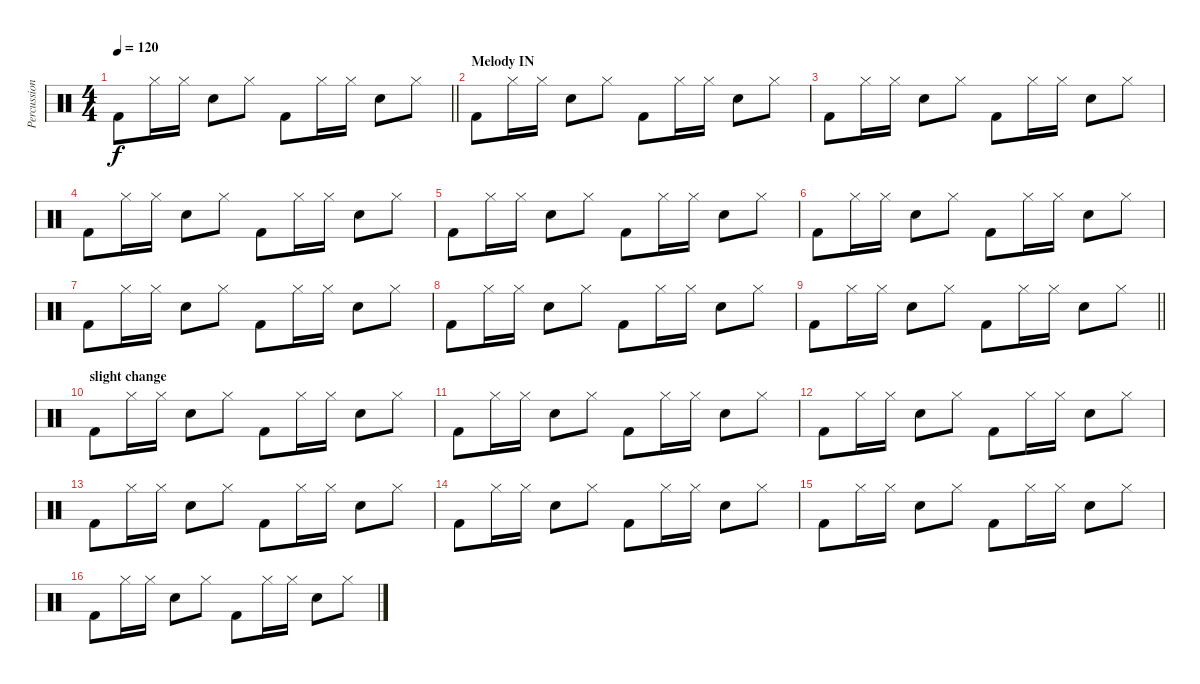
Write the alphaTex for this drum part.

\track ("Percussion" "Percussion") {instrument percussion}
\staff {score}
\articulation defaults
\ts (4 4)
\tempo 120
\clef neutral
\barLineRight lightlight
\ks c "Kick (hit) 2".8{dy f} "Hi-Hat (closed)".16 "Hi-Hat (closed)".16 "Snare (hit) 2".8 "Hi-Hat (closed)".8 "Kick (hit) 2".8 "Hi-Hat (closed)".16 "Hi-Hat (closed)".16 "Snare (hit) 2".8 "Hi-Hat (closed)".8
|
\section ("" "Melody IN")
"Kick (hit) 2".8 "Hi-Hat (closed)".16 "Hi-Hat (closed)".16 "Snare (hit) 2".8 "Hi-Hat (closed)".8 "Kick (hit) 2".8 "Hi-Hat (closed)".16 "Hi-Hat (closed)".16 "Snare (hit) 2".8 "Hi-Hat (closed)".8 |
"Kick (hit) 2".8 "Hi-Hat (closed)".16 "Hi-Hat (closed)".16 "Snare (hit) 2".8 "Hi-Hat (closed)".8 "Kick (hit) 2".8 "Hi-Hat (closed)".16 "Hi-Hat (closed)".16 "Snare (hit) 2".8 "Hi-Hat (closed)".8 |
"Kick (hit) 2".8 "Hi-Hat (closed)".16 "Hi-Hat (closed)".16 "Snare (hit) 2".8 "Hi-Hat (closed)".8 "Kick (hit) 2".8 "Hi-Hat (closed)".16 "Hi-Hat (closed)".16 "Snare (hit) 2".8 "Hi-Hat (closed)".8 |
"Kick (hit) 2".8 "Hi-Hat (closed)".16 "Hi-Hat (closed)".16 "Snare (hit) 2".8 "Hi-Hat (closed)".8 "Kick (hit) 2".8 "Hi-Hat (closed)".16 "Hi-Hat (closed)".16 "Snare (hit) 2".8 "Hi-Hat (closed)".8 |
"Kick (hit) 2".8 "Hi-Hat (closed)".16 "Hi-Hat (closed)".16 "Snare (hit) 2".8 "Hi-Hat (closed)".8 "Kick (hit) 2".8 "Hi-Hat (closed)".16 "Hi-Hat (closed)".16 "Snare (hit) 2".8 "Hi-Hat (closed)".8 |
"Kick (hit) 2".8 "Hi-Hat (closed)".16 "Hi-Hat (closed)".16 "Snare (hit) 2".8 "Hi-Hat (closed)".8 "Kick (hit) 2".8 "Hi-Hat (closed)".16 "Hi-Hat (closed)".16 "Snare (hit) 2".8 "Hi-Hat (closed)".8 |
"Kick (hit) 2".8 "Hi-Hat (closed)".16 "Hi-Hat (closed)".16 "Snare (hit) 2".8 "Hi-Hat (closed)".8 "Kick (hit) 2".8 "Hi-Hat (closed)".16 "Hi-Hat (closed)".16 "Snare (hit) 2".8 "Hi-Hat (closed)".8 |
\barLineRight lightlight "Kick (hit) 2".8 "Hi-Hat (closed)".16 "Hi-Hat (closed)".16 "Snare (hit) 2".8 "Hi-Hat (closed)".8 "Kick (hit) 2".8 "Hi-Hat (closed)".16 "Hi-Hat (closed)".16 "Snare (hit) 2".8 "Hi-Hat (closed)".8
|
\section ("" "slight change")
"Kick (hit) 2".8 "Hi-Hat (closed)".16 "Hi-Hat (closed)".16 "Snare (hit) 2".8 "Hi-Hat (closed)".8 "Kick (hit) 2".8 "Hi-Hat (closed)".16 "Hi-Hat (closed)".16 "Snare (hit) 2".8 "Hi-Hat (closed)".8 |
"Kick (hit) 2".8 "Hi-Hat (closed)".16 "Hi-Hat (closed)".16 "Snare (hit) 2".8 "Hi-Hat (closed)".8 "Kick (hit) 2".8 "Hi-Hat (closed)".16 "Hi-Hat (closed)".16 "Snare (hit) 2".8 "Hi-Hat (closed)".8 |
"Kick (hit) 2".8 "Hi-Hat (closed)".16 "Hi-Hat (closed)".16 "Snare (hit) 2".8 "Hi-Hat (closed)".8 "Kick (hit) 2".8 "Hi-Hat (closed)".16 "Hi-Hat (closed)".16 "Snare (hit) 2".8 "Hi-Hat (closed)".8 |
"Kick (hit) 2".8 "Hi-Hat (closed)".16 "Hi-Hat (closed)".16 "Snare (hit) 2".8 "Hi-Hat (closed)".8 "Kick (hit) 2".8 "Hi-Hat (closed)".16 "Hi-Hat (closed)".16 "Snare (hit) 2".8 "Hi-Hat (closed)".8 |
"Kick (hit) 2".8 "Hi-Hat (closed)".16 "Hi-Hat (closed)".16 "Snare (hit) 2".8 "Hi-Hat (closed)".8 "Kick (hit) 2".8 "Hi-Hat (closed)".16 "Hi-Hat (closed)".16 "Snare (hit) 2".8 "Hi-Hat (closed)".8 |
"Kick (hit) 2".8 "Hi-Hat (closed)".16 "Hi-Hat (closed)".16 "Snare (hit) 2".8 "Hi-Hat (closed)".8 "Kick (hit) 2".8 "Hi-Hat (closed)".16 "Hi-Hat (closed)".16 "Snare (hit) 2".8 "Hi-Hat (closed)".8 |
"Kick (hit) 2".8 "Hi-Hat (closed)".16 "Hi-Hat (closed)".16 "Snare (hit) 2".8 "Hi-Hat (closed)".8 "Kick (hit) 2".8 "Hi-Hat (closed)".16 "Hi-Hat (closed)".16 "Snare (hit) 2".8 "Hi-Hat (closed)".8
